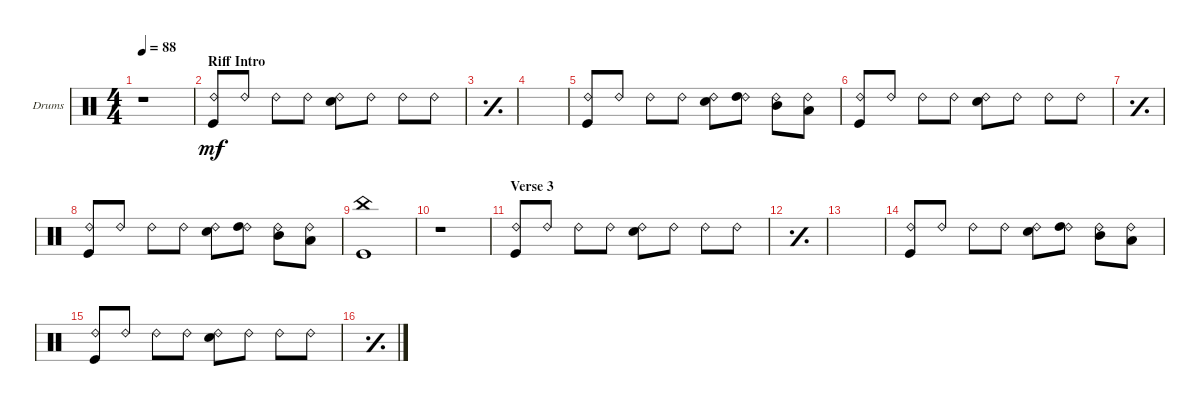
\defaultSystemsLayout 4
\bracketExtendMode groupsimilarinstruments
\firstSystemTrackNameOrientation horizontal
\otherSystemsTrackNameOrientation horizontal
\track ("Drumkit" "Drums") {instrument percussion}
\staff {score}
\articulation defaults
\ts (4 4)
\tempo 88
\clef neutral
\ks c
r.1{dy mf} |
\section ("" "Riff Intro")
("Ride (bell) 2" "Kick (hit)").8 "Ride (bell) 2".8 "Ride (bell) 2".8 "Ride (bell) 2".8 ("Ride (bell) 2" "Snare (hit) 2").8 "Ride (bell) 2".8 "Ride (bell) 2".8 "Ride (bell) 2".8 |
\simile simple
|
|
\simile none
("Ride (bell) 2" "Kick (hit)").8 "Ride (bell) 2".8 "Ride (bell) 2".8 "Ride (bell) 2".8 ("Ride (bell) 2" "Snare (hit) 2").8 ("Ride (bell) 2" "High Tom (hit)").8 ("Ride (bell) 2" "Mid Tom (hit)").8 ("Ride (bell) 2" "Low Tom (hit)").8 |
("Ride (bell) 2" "Kick (hit)").8 "Ride (bell) 2".8 "Ride (bell) 2".8 "Ride (bell) 2".8 ("Ride (bell) 2" "Snare (hit) 2").8 "Ride (bell) 2".8 "Ride (bell) 2".8 "Ride (bell) 2".8 |
\simile simple
|
\simile none
("Ride (bell) 2" "Kick (hit)").8 "Ride (bell) 2".8 "Ride (bell) 2".8 "Ride (bell) 2".8 ("Ride (bell) 2" "Snare (hit) 2").8 ("Ride (bell) 2" "High Tom (hit)").8 ("Ride (bell) 2" "Mid Tom (hit)").8 ("Ride (bell) 2" "Low Tom (hit)").8 |
("Kick (hit)" "China (hit)").1 |
r.1 |
\section ("" "Verse 3")
("Ride (bell) 2" "Kick (hit)").8 "Ride (bell) 2".8 "Ride (bell) 2".8 "Ride (bell) 2".8 ("Ride (bell) 2" "Snare (hit) 2").8 "Ride (bell) 2".8 "Ride (bell) 2".8 "Ride (bell) 2".8 |
\simile simple
|
|
\simile none
("Ride (bell) 2" "Kick (hit)").8 "Ride (bell) 2".8 "Ride (bell) 2".8 "Ride (bell) 2".8 ("Ride (bell) 2" "Snare (hit) 2").8 ("Ride (bell) 2" "High Tom (hit)").8 ("Ride (bell) 2" "Mid Tom (hit)").8 ("Ride (bell) 2" "Low Tom (hit)").8 |
("Ride (bell) 2" "Kick (hit)").8 "Ride (bell) 2".8 "Ride (bell) 2".8 "Ride (bell) 2".8 ("Ride (bell) 2" "Snare (hit) 2").8 "Ride (bell) 2".8 "Ride (bell) 2".8 "Ride (bell) 2".8 |
\simile simple
